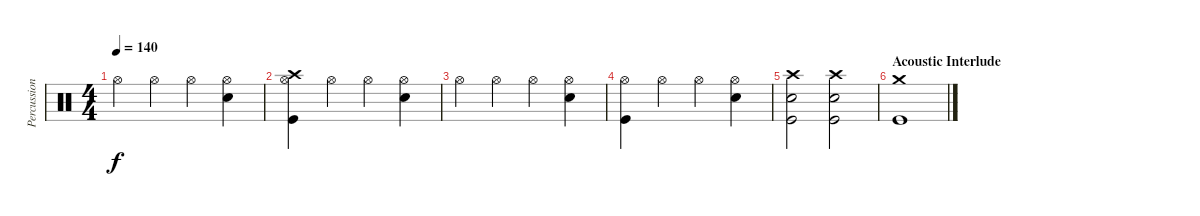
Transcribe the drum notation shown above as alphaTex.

\track ("Percussion" "Percussion") {instrument percussion}
\staff {score}
\articulation defaults
\ts (4 4)
\tempo 140
\clef neutral
\ks c "Hi-Hat (open)".4{dy f} "Hi-Hat (open)".4 "Hi-Hat (open)".4
("Electric Snare (hit)" "Hi-Hat (open)").4 |
("Kick (hit)" "Hi-Hat (open)" "Crash high (hit)").4 "Hi-Hat (open)".4 "Hi-Hat (open)".4 ("Electric Snare (hit)" "Hi-Hat (open)").4 |
"Hi-Hat (open)".4 "Hi-Hat (open)".4 "Hi-Hat (open)".4 ("Electric Snare (hit)" "Hi-Hat (open)").4 |
("Kick (hit)" "Hi-Hat (open)").4 "Hi-Hat (open)".4 "Hi-Hat (open)".4 ("Electric Snare (hit)" "Hi-Hat (open)").4 |
("Crash high (hit)" "Electric Snare (hit)" "Kick (hit)").2 ("Crash high (hit)" "Electric Snare (hit)" "Kick (hit)").2 |
\section ("" "Acoustic Interlude")
("Crash medium (hit)" "Kick (hit)").1
